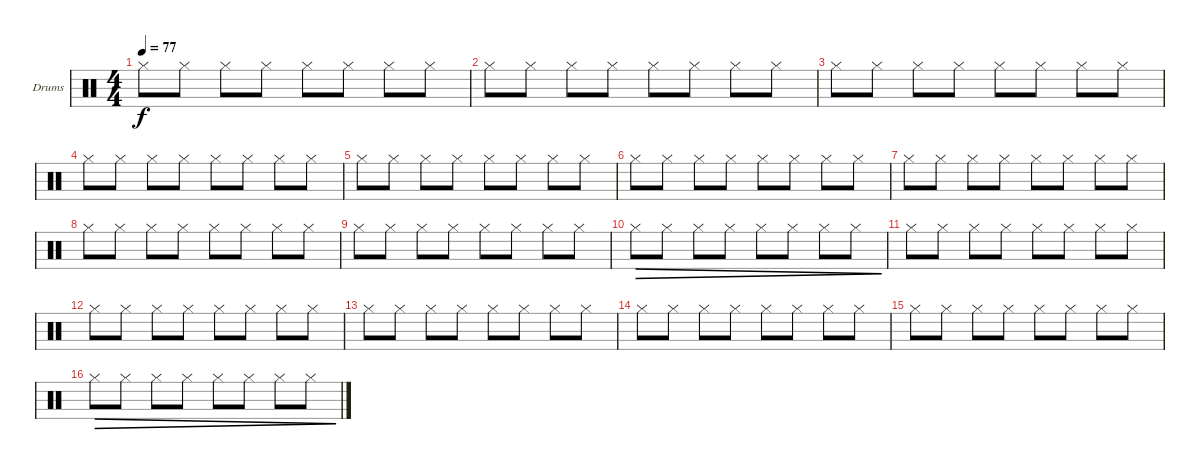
\bracketExtendMode groupsimilarinstruments
\firstSystemTrackNameOrientation horizontal
\otherSystemsTrackNameOrientation horizontal
\track ("Drumkit Гурьянов" "Drums") {instrument percussion}
\staff {score}
\articulation defaults
\ts (4 4)
\tempo 77
\clef neutral
\scale
0.333333
\ks c "Hi-Hat (closed)".8{dy f} "Hi-Hat (closed)".8 "Hi-Hat (closed)".8 "Hi-Hat (closed)".8 "Hi-Hat (closed)".8 "Hi-Hat (closed)".8 "Hi-Hat (closed)".8 "Hi-Hat (closed)".8
|
\scale
0.333333 "Hi-Hat (closed)".8 "Hi-Hat (closed)".8 "Hi-Hat (closed)".8 "Hi-Hat (closed)".8 "Hi-Hat (closed)".8 "Hi-Hat (closed)".8 "Hi-Hat (closed)".8 "Hi-Hat (closed)".8 |
\scale
0.333333 "Hi-Hat (closed)".8 "Hi-Hat (closed)".8 "Hi-Hat (closed)".8 "Hi-Hat (closed)".8 "Hi-Hat (closed)".8 "Hi-Hat (closed)".8 "Hi-Hat (closed)".8 "Hi-Hat (closed)".8 |
\scale
0.333333 "Hi-Hat (closed)".8 "Hi-Hat (closed)".8 "Hi-Hat (closed)".8 "Hi-Hat (closed)".8 "Hi-Hat (closed)".8 "Hi-Hat (closed)".8 "Hi-Hat (closed)".8 "Hi-Hat (closed)".8 |
\scale
0.333333 "Hi-Hat (closed)".8 "Hi-Hat (closed)".8 "Hi-Hat (closed)".8 "Hi-Hat (closed)".8 "Hi-Hat (closed)".8 "Hi-Hat (closed)".8 "Hi-Hat (closed)".8 "Hi-Hat (closed)".8 |
\scale
0.333333 "Hi-Hat (closed)".8 "Hi-Hat (closed)".8 "Hi-Hat (closed)".8 "Hi-Hat (closed)".8 "Hi-Hat (closed)".8 "Hi-Hat (closed)".8 "Hi-Hat (closed)".8 "Hi-Hat (closed)".8 |
\scale
0.333333 "Hi-Hat (closed)".8 "Hi-Hat (closed)".8 "Hi-Hat (closed)".8 "Hi-Hat (closed)".8 "Hi-Hat (closed)".8 "Hi-Hat (closed)".8 "Hi-Hat (closed)".8 "Hi-Hat (closed)".8 |
\scale
0.333333 "Hi-Hat (closed)".8 "Hi-Hat (closed)".8 "Hi-Hat (closed)".8 "Hi-Hat (closed)".8 "Hi-Hat (closed)".8 "Hi-Hat (closed)".8 "Hi-Hat (closed)".8 "Hi-Hat (closed)".8 |
\scale
0.333333 "Hi-Hat (closed)".8 "Hi-Hat (closed)".8 "Hi-Hat (closed)".8 "Hi-Hat (closed)".8 "Hi-Hat (closed)".8 "Hi-Hat (closed)".8 "Hi-Hat (closed)".8 "Hi-Hat (closed)".8 |
\scale
0.333333 "Hi-Hat (closed)".8{dec} "Hi-Hat (closed)".8{dec} "Hi-Hat (closed)".8{dec} "Hi-Hat (closed)".8{dec} "Hi-Hat (closed)".8{dec} "Hi-Hat (closed)".8{dec} "Hi-Hat (closed)".8{dec} "Hi-Hat (closed)".8{dec} |
\scale
0.333333 "Hi-Hat (closed)".8 "Hi-Hat (closed)".8 "Hi-Hat (closed)".8 "Hi-Hat (closed)".8 "Hi-Hat (closed)".8 "Hi-Hat (closed)".8 "Hi-Hat (closed)".8 "Hi-Hat (closed)".8 |
\scale
0.333333 "Hi-Hat (closed)".8 "Hi-Hat (closed)".8 "Hi-Hat (closed)".8 "Hi-Hat (closed)".8 "Hi-Hat (closed)".8 "Hi-Hat (closed)".8 "Hi-Hat (closed)".8 "Hi-Hat (closed)".8 |
\scale
0.333333 "Hi-Hat (closed)".8 "Hi-Hat (closed)".8 "Hi-Hat (closed)".8 "Hi-Hat (closed)".8 "Hi-Hat (closed)".8 "Hi-Hat (closed)".8 "Hi-Hat (closed)".8 "Hi-Hat (closed)".8 |
\scale
0.333333 "Hi-Hat (closed)".8 "Hi-Hat (closed)".8 "Hi-Hat (closed)".8 "Hi-Hat (closed)".8 "Hi-Hat (closed)".8 "Hi-Hat (closed)".8 "Hi-Hat (closed)".8 "Hi-Hat (closed)".8 |
\scale
0.333333 "Hi-Hat (closed)".8 "Hi-Hat (closed)".8 "Hi-Hat (closed)".8 "Hi-Hat (closed)".8 "Hi-Hat (closed)".8 "Hi-Hat (closed)".8 "Hi-Hat (closed)".8 "Hi-Hat (closed)".8 |
\scale
0.333333 "Hi-Hat (closed)".8{dec} "Hi-Hat (closed)".8{dec} "Hi-Hat (closed)".8{dec} "Hi-Hat (closed)".8{dec} "Hi-Hat (closed)".8{dec} "Hi-Hat (closed)".8{dec} "Hi-Hat (closed)".8{dec} "Hi-Hat (closed)".8{dec}
